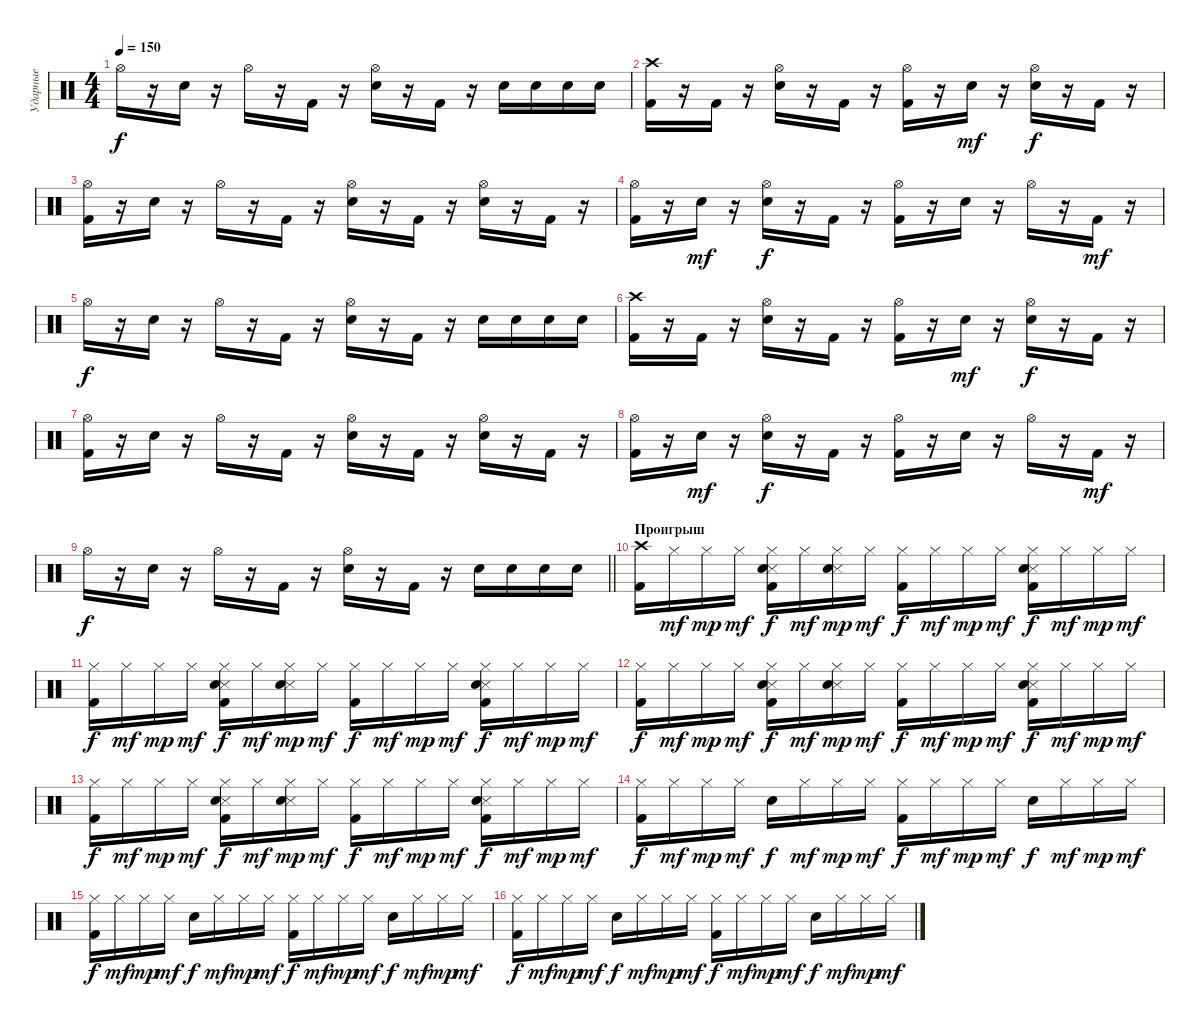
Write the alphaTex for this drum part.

\track ("Ударные" "Ударные") {instrument percussion}
\staff {score}
\articulation defaults
\ts (4 4)
\tempo 150
\clef neutral
\ks c "Hi-Hat (open)".16{dy f}
r.16 "Electric Snare (hit)".16 r.16 "Hi-Hat (open)".16 r.16 "Kick (hit) 2".16 r.16 ("Hi-Hat (open)" "Electric Snare (hit)").16 r.16 "Kick (hit) 2".16 r.16 "Electric Snare (hit)".16 "Electric Snare (hit)".16 "Electric Snare (hit)".16 "Electric Snare (hit)".16 |
("Crash high (hit)" "Kick (hit) 2").16 r.16 "Kick (hit) 2".16 r.16 ("Hi-Hat (open)" "Electric Snare (hit)").16 r.16 "Kick (hit) 2".16 r.16 ("Hi-Hat (open)" "Kick (hit) 2").16 r.16 "Electric Snare (hit)".16{dy mf} r.16 ("Hi-Hat (open)" "Electric Snare (hit)").16{dy f} r.16 "Kick (hit) 2".16 r.16 |
("Hi-Hat (open)" "Kick (hit) 2").16 r.16 "Electric Snare (hit)".16 r.16 "Hi-Hat (open)".16 r.16 "Kick (hit) 2".16 r.16 ("Hi-Hat (open)" "Electric Snare (hit)").16 r.16 "Kick (hit) 2".16 r.16 ("Hi-Hat (open)" "Electric Snare (hit)").16 r.16 "Kick (hit) 2".16 r.16 |
("Hi-Hat (open)" "Kick (hit) 2").16 r.16 "Electric Snare (hit)".16{dy mf} r.16 ("Hi-Hat (open)" "Electric Snare (hit)").16{dy f} r.16 "Kick (hit) 2".16 r.16 ("Hi-Hat (open)" "Kick (hit) 2").16 r.16 "Electric Snare (hit)".16 r.16 "Hi-Hat (open)".16 r.16 "Kick (hit) 2".16{dy mf} r.16 |
"Hi-Hat (open)".16{dy f} r.16 "Electric Snare (hit)".16 r.16 "Hi-Hat (open)".16 r.16 "Kick (hit) 2".16 r.16 ("Hi-Hat (open)" "Electric Snare (hit)").16 r.16 "Kick (hit) 2".16 r.16 "Electric Snare (hit)".16 "Electric Snare (hit)".16 "Electric Snare (hit)".16 "Electric Snare (hit)".16 |
("Crash high (hit)" "Kick (hit) 2").16 r.16 "Kick (hit) 2".16 r.16 ("Hi-Hat (open)" "Electric Snare (hit)").16 r.16 "Kick (hit) 2".16 r.16 ("Hi-Hat (open)" "Kick (hit) 2").16 r.16 "Electric Snare (hit)".16{dy mf} r.16 ("Hi-Hat (open)" "Electric Snare (hit)").16{dy f} r.16 "Kick (hit) 2".16 r.16 |
("Hi-Hat (open)" "Kick (hit) 2").16 r.16 "Electric Snare (hit)".16 r.16 "Hi-Hat (open)".16 r.16 "Kick (hit) 2".16 r.16 ("Hi-Hat (open)" "Electric Snare (hit)").16 r.16 "Kick (hit) 2".16 r.16 ("Hi-Hat (open)" "Electric Snare (hit)").16 r.16 "Kick (hit) 2".16 r.16 |
("Hi-Hat (open)" "Kick (hit) 2").16 r.16 "Electric Snare (hit)".16{dy mf} r.16 ("Hi-Hat (open)" "Electric Snare (hit)").16{dy f} r.16 "Kick (hit) 2".16 r.16 ("Hi-Hat (open)" "Kick (hit) 2").16 r.16 "Electric Snare (hit)".16 r.16 "Hi-Hat (open)".16 r.16 "Kick (hit) 2".16{dy mf} r.16 |
\barLineRight lightlight "Hi-Hat (open)".16{dy f}
r.16 "Electric Snare (hit)".16 r.16 "Hi-Hat (open)".16 r.16 "Kick (hit) 2".16 r.16 ("Hi-Hat (open)" "Electric Snare (hit)").16 r.16 "Kick (hit) 2".16 r.16 "Electric Snare (hit)".16 "Electric Snare (hit)".16 "Electric Snare (hit)".16 "Electric Snare (hit)".16 |
\section ("" "Проигрыш")
("Crash high (hit)" "Kick (hit) 2").16 "Hi-Hat (closed)".16{dy mf} "Hi-Hat (closed)".16{dy mp} "Hi-Hat (closed)".16{dy mf} ("Hi-Hat (closed)" "Snare (side stick) 3" "Hand Clap (hit)" "Kick (hit) 2").16{dy f} "Hi-Hat (closed)".16{dy mf} ("Hi-Hat (closed)" "Snare (side stick) 3" "Hand Clap (hit)").16{dy mp} "Hi-Hat (closed)".16{dy mf} ("Hi-Hat (closed)" "Kick (hit) 2").16{dy f} "Hi-Hat (closed)".16{dy mf} "Hi-Hat (closed)".16{dy mp} "Hi-Hat (closed)".16{dy mf} ("Hi-Hat (closed)" "Snare (side stick) 3" "Hand Clap (hit)" "Kick (hit) 2").16{dy f} "Hi-Hat (closed)".16{dy mf} "Hi-Hat (closed)".16{dy mp} "Hi-Hat (closed)".16{dy mf} |
("Hi-Hat (closed)" "Kick (hit) 2").16{dy f} "Hi-Hat (closed)".16{dy mf} "Hi-Hat (closed)".16{dy mp} "Hi-Hat (closed)".16{dy mf} ("Hi-Hat (closed)" "Snare (side stick) 3" "Hand Clap (hit)" "Kick (hit) 2").16{dy f} "Hi-Hat (closed)".16{dy mf} ("Hi-Hat (closed)" "Snare (side stick) 3" "Hand Clap (hit)").16{dy mp} "Hi-Hat (closed)".16{dy mf} ("Hi-Hat (closed)" "Kick (hit) 2").16{dy f} "Hi-Hat (closed)".16{dy mf} "Hi-Hat (closed)".16{dy mp} "Hi-Hat (closed)".16{dy mf} ("Hi-Hat (closed)" "Snare (side stick) 3" "Hand Clap (hit)" "Kick (hit) 2").16{dy f} "Hi-Hat (closed)".16{dy mf} "Hi-Hat (closed)".16{dy mp} "Hi-Hat (closed)".16{dy mf} |
("Hi-Hat (closed)" "Kick (hit) 2").16{dy f} "Hi-Hat (closed)".16{dy mf} "Hi-Hat (closed)".16{dy mp} "Hi-Hat (closed)".16{dy mf} ("Hi-Hat (closed)" "Snare (side stick) 3" "Hand Clap (hit)" "Kick (hit) 2").16{dy f} "Hi-Hat (closed)".16{dy mf} ("Hi-Hat (closed)" "Snare (side stick) 3" "Hand Clap (hit)").16{dy mp} "Hi-Hat (closed)".16{dy mf} ("Hi-Hat (closed)" "Kick (hit) 2").16{dy f} "Hi-Hat (closed)".16{dy mf} "Hi-Hat (closed)".16{dy mp} "Hi-Hat (closed)".16{dy mf} ("Hi-Hat (closed)" "Snare (side stick) 3" "Hand Clap (hit)" "Kick (hit) 2").16{dy f} "Hi-Hat (closed)".16{dy mf} "Hi-Hat (closed)".16{dy mp} "Hi-Hat (closed)".16{dy mf} |
("Hi-Hat (closed)" "Kick (hit) 2").16{dy f} "Hi-Hat (closed)".16{dy mf} "Hi-Hat (closed)".16{dy mp} "Hi-Hat (closed)".16{dy mf} ("Hi-Hat (closed)" "Snare (side stick) 3" "Hand Clap (hit)" "Kick (hit) 2").16{dy f} "Hi-Hat (closed)".16{dy mf} ("Hi-Hat (closed)" "Snare (side stick) 3" "Hand Clap (hit)").16{dy mp} "Hi-Hat (closed)".16{dy mf} ("Hi-Hat (closed)" "Kick (hit) 2").16{dy f} "Hi-Hat (closed)".16{dy mf} "Hi-Hat (closed)".16{dy mp} "Hi-Hat (closed)".16{dy mf} ("Hi-Hat (closed)" "Snare (side stick) 3" "Hand Clap (hit)" "Kick (hit) 2").16{dy f} "Hi-Hat (closed)".16{dy mf} "Hi-Hat (closed)".16{dy mp} "Hi-Hat (closed)".16{dy mf} |
("Hi-Hat (closed)" "Kick (hit) 2").16{dy f} "Hi-Hat (closed)".16{dy mf} "Hi-Hat (closed)".16{dy mp} "Hi-Hat (closed)".16{dy mf} "Electric Snare (hit)".16{dy f} "Hi-Hat (closed)".16{dy mf} "Hi-Hat (closed)".16{dy mp} "Hi-Hat (closed)".16{dy mf} ("Hi-Hat (closed)" "Kick (hit) 2").16{dy f} "Hi-Hat (closed)".16{dy mf} "Hi-Hat (closed)".16{dy mp} "Hi-Hat (closed)".16{dy mf} "Electric Snare (hit)".16{dy f} "Hi-Hat (closed)".16{dy mf} "Hi-Hat (closed)".16{dy mp} "Hi-Hat (closed)".16{dy mf} |
("Hi-Hat (closed)" "Kick (hit) 2").16{dy f} "Hi-Hat (closed)".16{dy mf} "Hi-Hat (closed)".16{dy mp} "Hi-Hat (closed)".16{dy mf} "Electric Snare (hit)".16{dy f} "Hi-Hat (closed)".16{dy mf} "Hi-Hat (closed)".16{dy mp} "Hi-Hat (closed)".16{dy mf} ("Hi-Hat (closed)" "Kick (hit) 2").16{dy f} "Hi-Hat (closed)".16{dy mf} "Hi-Hat (closed)".16{dy mp} "Hi-Hat (closed)".16{dy mf} "Electric Snare (hit)".16{dy f} "Hi-Hat (closed)".16{dy mf} "Hi-Hat (closed)".16{dy mp} "Hi-Hat (closed)".16{dy mf} |
("Hi-Hat (closed)" "Kick (hit) 2").16{dy f} "Hi-Hat (closed)".16{dy mf} "Hi-Hat (closed)".16{dy mp} "Hi-Hat (closed)".16{dy mf} "Electric Snare (hit)".16{dy f} "Hi-Hat (closed)".16{dy mf} "Hi-Hat (closed)".16{dy mp} "Hi-Hat (closed)".16{dy mf} ("Hi-Hat (closed)" "Kick (hit) 2").16{dy f} "Hi-Hat (closed)".16{dy mf} "Hi-Hat (closed)".16{dy mp} "Hi-Hat (closed)".16{dy mf} "Electric Snare (hit)".16{dy f} "Hi-Hat (closed)".16{dy mf} "Hi-Hat (closed)".16{dy mp} "Hi-Hat (closed)".16{dy mf}
